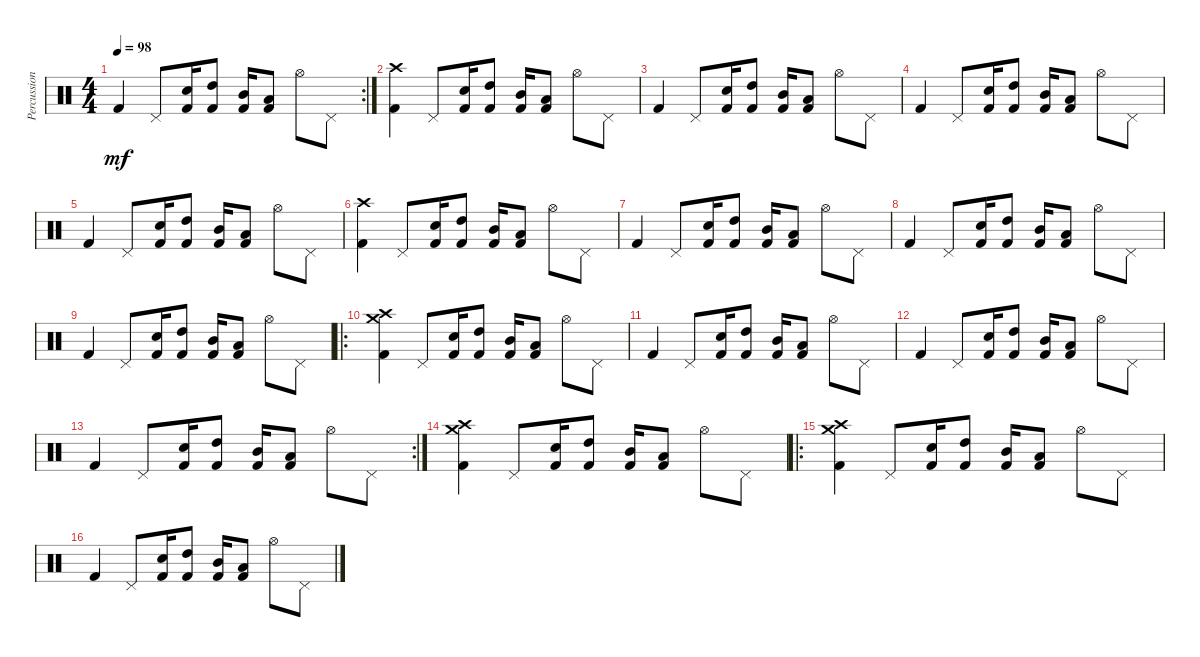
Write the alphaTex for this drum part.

\track ("Percussion" "Percussion") {instrument percussion}
\staff {score}
\articulation defaults
\rc 2
\ts (4 4)
\tempo 98
\clef neutral
\ks c "Kick (hit) 2".4{dy mf} "Pedal Hi-Hat (hit)".8
("Snare (hit) 2" "Kick (hit) 2").16 ("High Tom (hit)" "Kick (hit) 2").8 ("Mid Tom (hit)" "Kick (hit) 2").16 ("Low Tom (hit)" "Kick (hit) 2").8 "Hi-Hat (open)".8 "Pedal Hi-Hat (hit)".8 |
("Crash high (hit)" "Kick (hit) 2").4{volume 11} "Pedal Hi-Hat (hit)".8 ("Snare (hit) 2" "Kick (hit) 2").16 ("High Tom (hit)" "Kick (hit) 2").8 ("Mid Tom (hit)" "Kick (hit) 2").16 ("Low Tom (hit)" "Kick (hit) 2").8 "Hi-Hat (open)".8 "Pedal Hi-Hat (hit)".8 |
"Kick (hit) 2".4 "Pedal Hi-Hat (hit)".8 ("Snare (hit) 2" "Kick (hit) 2").16 ("High Tom (hit)" "Kick (hit) 2").8 ("Mid Tom (hit)" "Kick (hit) 2").16 ("Low Tom (hit)" "Kick (hit) 2").8 "Hi-Hat (open)".8 "Pedal Hi-Hat (hit)".8 |
"Kick (hit) 2".4 "Pedal Hi-Hat (hit)".8 ("Snare (hit) 2" "Kick (hit) 2").16 ("High Tom (hit)" "Kick (hit) 2").8 ("Mid Tom (hit)" "Kick (hit) 2").16 ("Low Tom (hit)" "Kick (hit) 2").8 "Hi-Hat (open)".8 "Pedal Hi-Hat (hit)".8 |
"Kick (hit) 2".4 "Pedal Hi-Hat (hit)".8 ("Snare (hit) 2" "Kick (hit) 2").16 ("High Tom (hit)" "Kick (hit) 2").8 ("Mid Tom (hit)" "Kick (hit) 2").16 ("Low Tom (hit)" "Kick (hit) 2").8 "Hi-Hat (open)".8 "Pedal Hi-Hat (hit)".8 |
("Crash high (hit)" "Kick (hit) 2").4 "Pedal Hi-Hat (hit)".8 ("Snare (hit) 2" "Kick (hit) 2").16 ("High Tom (hit)" "Kick (hit) 2").8 ("Mid Tom (hit)" "Kick (hit) 2").16 ("Low Tom (hit)" "Kick (hit) 2").8 "Hi-Hat (open)".8 "Pedal Hi-Hat (hit)".8 |
"Kick (hit) 2".4 "Pedal Hi-Hat (hit)".8 ("Snare (hit) 2" "Kick (hit) 2").16 ("High Tom (hit)" "Kick (hit) 2").8 ("Mid Tom (hit)" "Kick (hit) 2").16 ("Low Tom (hit)" "Kick (hit) 2").8 "Hi-Hat (open)".8 "Pedal Hi-Hat (hit)".8 |
"Kick (hit) 2".4 "Pedal Hi-Hat (hit)".8 ("Snare (hit) 2" "Kick (hit) 2").16 ("High Tom (hit)" "Kick (hit) 2").8 ("Mid Tom (hit)" "Kick (hit) 2").16 ("Low Tom (hit)" "Kick (hit) 2").8 "Hi-Hat (open)".8 "Pedal Hi-Hat (hit)".8 |
"Kick (hit) 2".4 "Pedal Hi-Hat (hit)".8 ("Snare (hit) 2" "Kick (hit) 2").16 ("High Tom (hit)" "Kick (hit) 2").8 ("Mid Tom (hit)" "Kick (hit) 2").16 ("Low Tom (hit)" "Kick (hit) 2").8 "Hi-Hat (open)".8 "Pedal Hi-Hat (hit)".8 |
\ro
("Crash high (hit)" "Crash medium (hit)" "Kick (hit) 2").4{volume 11} "Pedal Hi-Hat (hit)".8 ("Snare (hit) 2" "Kick (hit) 2").16 ("High Tom (hit)" "Kick (hit) 2").8 ("Mid Tom (hit)" "Kick (hit) 2").16 ("Low Tom (hit)" "Kick (hit) 2").8 "Hi-Hat (open)".8 "Pedal Hi-Hat (hit)".8 |
"Kick (hit) 2".4 "Pedal Hi-Hat (hit)".8 ("Snare (hit) 2" "Kick (hit) 2").16 ("High Tom (hit)" "Kick (hit) 2").8 ("Mid Tom (hit)" "Kick (hit) 2").16 ("Low Tom (hit)" "Kick (hit) 2").8 "Hi-Hat (open)".8 "Pedal Hi-Hat (hit)".8 |
"Kick (hit) 2".4 "Pedal Hi-Hat (hit)".8 ("Snare (hit) 2" "Kick (hit) 2").16 ("High Tom (hit)" "Kick (hit) 2").8 ("Mid Tom (hit)" "Kick (hit) 2").16 ("Low Tom (hit)" "Kick (hit) 2").8 "Hi-Hat (open)".8 "Pedal Hi-Hat (hit)".8 |
\rc 2 "Kick (hit) 2".4 "Pedal Hi-Hat (hit)".8
("Snare (hit) 2" "Kick (hit) 2").16 ("High Tom (hit)" "Kick (hit) 2").8 ("Mid Tom (hit)" "Kick (hit) 2").16 ("Low Tom (hit)" "Kick (hit) 2").8 "Hi-Hat (open)".8 "Pedal Hi-Hat (hit)".8 |
("Crash high (hit)" "Crash medium (hit)" "Kick (hit) 2").4{volume 11} "Pedal Hi-Hat (hit)".8 ("Snare (hit) 2" "Kick (hit) 2").16 ("High Tom (hit)" "Kick (hit) 2").8 ("Mid Tom (hit)" "Kick (hit) 2").16 ("Low Tom (hit)" "Kick (hit) 2").8 "Hi-Hat (open)".8 "Pedal Hi-Hat (hit)".8 |
\ro
("Crash high (hit)" "Crash medium (hit)" "Kick (hit) 2").4{volume 11} "Pedal Hi-Hat (hit)".8 ("Snare (hit) 2" "Kick (hit) 2").16 ("High Tom (hit)" "Kick (hit) 2").8 ("Mid Tom (hit)" "Kick (hit) 2").16 ("Low Tom (hit)" "Kick (hit) 2").8 "Hi-Hat (open)".8 "Pedal Hi-Hat (hit)".8 |
"Kick (hit) 2".4 "Pedal Hi-Hat (hit)".8 ("Snare (hit) 2" "Kick (hit) 2").16 ("High Tom (hit)" "Kick (hit) 2").8 ("Mid Tom (hit)" "Kick (hit) 2").16 ("Low Tom (hit)" "Kick (hit) 2").8 "Hi-Hat (open)".8 "Pedal Hi-Hat (hit)".8
